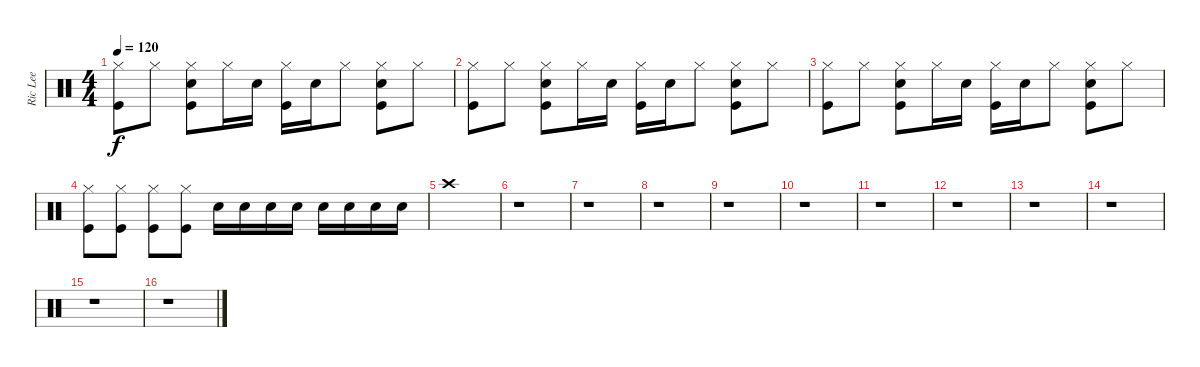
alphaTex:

\track ("Ric Lee" "Ric Lee") {instrument percussion}
\staff {score}
\articulation defaults
\ts (4 4)
\tempo 120
\clef neutral
\ks c
("Kick (hit)" "Hi-Hat (closed)").8{dy f} "Hi-Hat (closed)".8 ("Kick (hit)" "Snare (hit) 2" "Hi-Hat (closed)").8 "Hi-Hat (closed)".16 "Snare (hit) 2".16 ("Kick (hit)" "Hi-Hat (closed)").16 "Snare (hit) 2".16 "Hi-Hat (closed)".8 ("Kick (hit)" "Snare (hit) 2" "Hi-Hat (closed)").8 "Hi-Hat (closed)".8 |
("Kick (hit)" "Hi-Hat (closed)").8 "Hi-Hat (closed)".8 ("Kick (hit)" "Snare (hit) 2" "Hi-Hat (closed)").8 "Hi-Hat (closed)".16 "Snare (hit) 2".16 ("Kick (hit)" "Hi-Hat (closed)").16 "Snare (hit) 2".16 "Hi-Hat (closed)".8 ("Kick (hit)" "Snare (hit) 2" "Hi-Hat (closed)").8 "Hi-Hat (closed)".8 |
("Kick (hit)" "Hi-Hat (closed)").8 "Hi-Hat (closed)".8 ("Kick (hit)" "Snare (hit) 2" "Hi-Hat (closed)").8 "Hi-Hat (closed)".16 "Snare (hit) 2".16 ("Kick (hit)" "Hi-Hat (closed)").16 "Snare (hit) 2".16 "Hi-Hat (closed)".8 ("Kick (hit)" "Snare (hit) 2" "Hi-Hat (closed)").8 "Hi-Hat (closed)".8 |
("Kick (hit)" "Hi-Hat (closed)").8 ("Kick (hit)" "Hi-Hat (closed)").8 ("Kick (hit)" "Hi-Hat (closed)").8 ("Kick (hit)" "Hi-Hat (closed)").8 "Snare (hit) 2".16 "Snare (hit) 2".16 "Snare (hit) 2".16 "Snare (hit) 2".16 "Snare (hit) 2".16 "Snare (hit) 2".16 "Snare (hit) 2".16 "Snare (hit) 2".16 |
"Crash high (hit)".1 |
r.1 |
r.1 |
r.1 |
r.1 |
r.1 |
r.1 |
r.1 |
r.1 |
r.1 |
r.1 |
r.1
